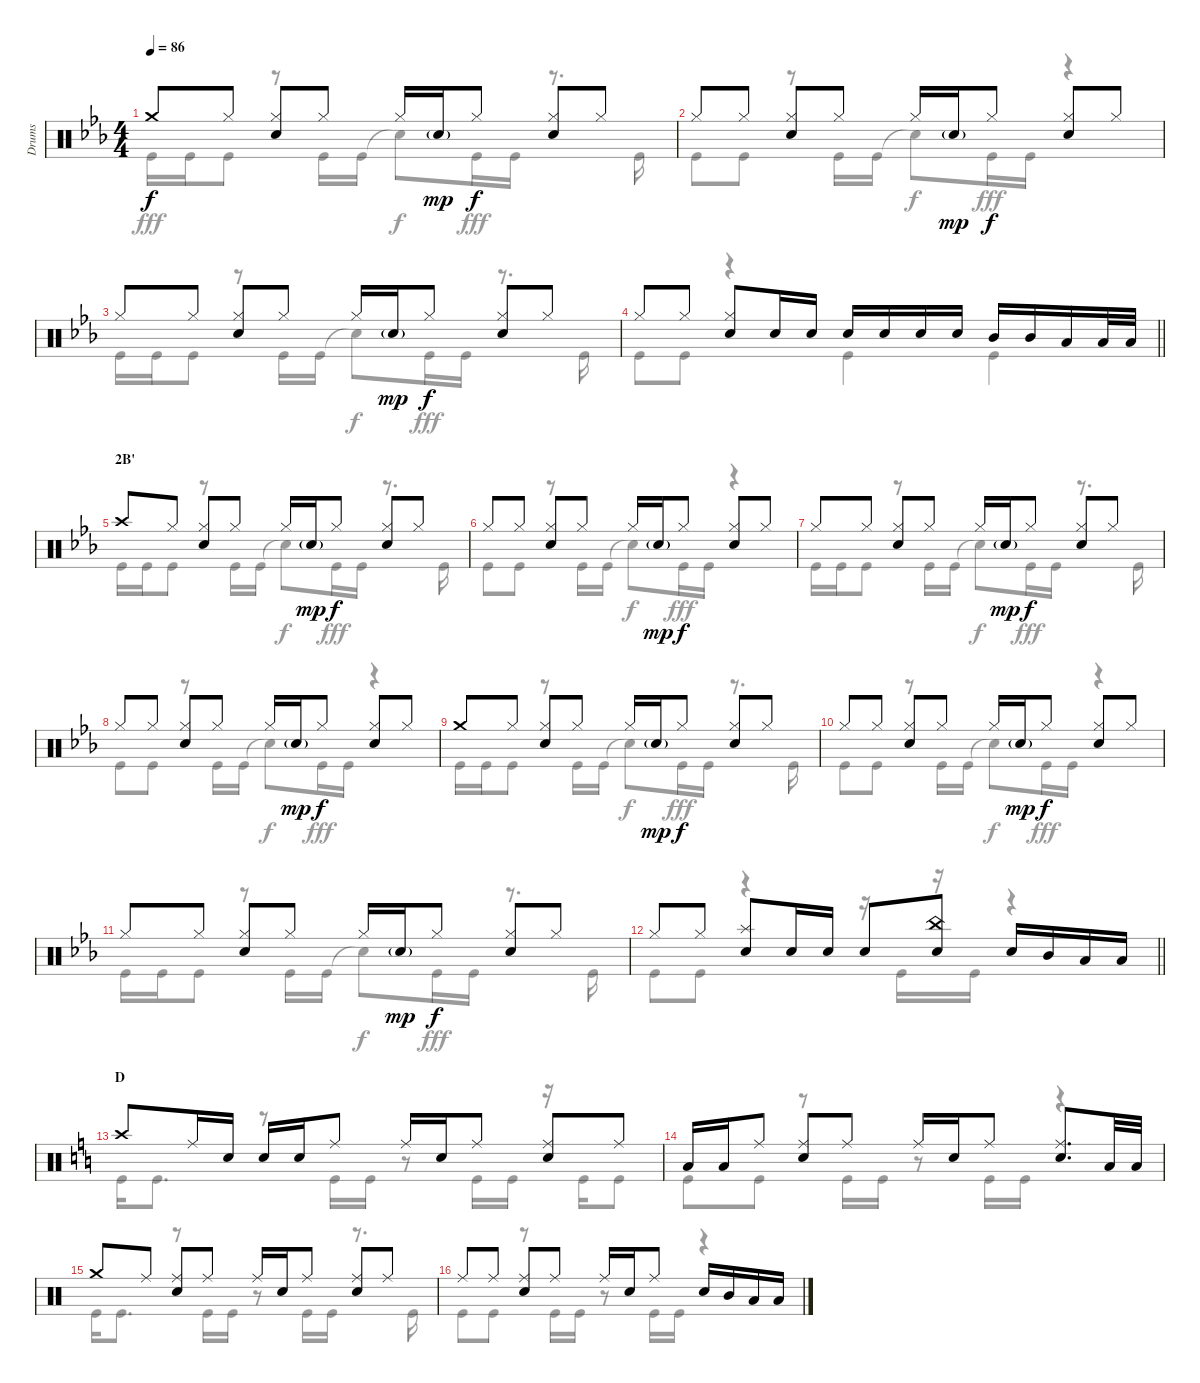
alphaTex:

\track ("Drums" "Drums") {instrument percussion}
\staff {score}
\articulation defaults
\voice
\ts (4 4)
\tempo 86
\clef neutral
\ks eb "Crash medium (hit)".8{dy f} "Hi-Hat (closed)".8
("Hi-Hat (closed)" "Snare (hit) 2").8 "Hi-Hat (closed)".8 "Hi-Hat (closed)".16 "Snare (hit) 2"{g}.16{dy mp} "Hi-Hat (closed)".8{dy f} ("Hi-Hat (closed)" "Snare (hit) 2").8 "Hi-Hat (closed)".8 |
"Hi-Hat (closed)".8 "Hi-Hat (closed)".8 ("Hi-Hat (closed)" "Snare (hit) 2").8 "Hi-Hat (closed)".8 "Hi-Hat (closed)".16 "Snare (hit) 2"{g}.16{dy mp} "Hi-Hat (closed)".8{dy f} ("Hi-Hat (closed)" "Snare (hit) 2").8 "Hi-Hat (closed)".8 |
"Hi-Hat (closed)".8 "Hi-Hat (closed)".8 ("Hi-Hat (closed)" "Snare (hit) 2").8 "Hi-Hat (closed)".8 "Hi-Hat (closed)".16 "Snare (hit) 2"{g}.16{dy mp} "Hi-Hat (closed)".8{dy f} ("Hi-Hat (closed)" "Snare (hit) 2").8 "Hi-Hat (closed)".8 |
\barLineRight lightlight "Hi-Hat (closed)".8 "Hi-Hat (closed)".8
("Hi-Hat (closed)" "Snare (hit) 2").8 "Snare (hit) 2".16 "Snare (hit) 2".16 "Snare (hit) 2".16 "Snare (hit) 2".16 "Snare (hit) 2".16 "Snare (hit) 2".16 "Mid Tom (hit)".16 "Mid Tom (hit)".16 "Low Tom (hit)".16 "Low Tom (hit)".32 "Low Tom (hit)".32 |
\section ("" "2B'")
"Crash high (hit)".8 "Hi-Hat (closed)".8 ("Hi-Hat (closed)" "Snare (hit) 2").8 "Hi-Hat (closed)".8 "Hi-Hat (closed)".16 "Snare (hit) 2"{g}.16{dy mp} "Hi-Hat (closed)".8{dy f} ("Hi-Hat (closed)" "Snare (hit) 2").8 "Hi-Hat (closed)".8 |
"Hi-Hat (closed)".8 "Hi-Hat (closed)".8 ("Hi-Hat (closed)" "Snare (hit) 2").8 "Hi-Hat (closed)".8 "Hi-Hat (closed)".16 "Snare (hit) 2"{g}.16{dy mp} "Hi-Hat (closed)".8{dy f} ("Hi-Hat (closed)" "Snare (hit) 2").8 "Hi-Hat (closed)".8 |
"Hi-Hat (closed)".8 "Hi-Hat (closed)".8 ("Hi-Hat (closed)" "Snare (hit) 2").8 "Hi-Hat (closed)".8 "Hi-Hat (closed)".16 "Snare (hit) 2"{g}.16{dy mp} "Hi-Hat (closed)".8{dy f} ("Hi-Hat (closed)" "Snare (hit) 2").8 "Hi-Hat (closed)".8 |
"Hi-Hat (closed)".8 "Hi-Hat (closed)".8 ("Hi-Hat (closed)" "Snare (hit) 2").8 "Hi-Hat (closed)".8 "Hi-Hat (closed)".16 "Snare (hit) 2"{g}.16{dy mp} "Hi-Hat (closed)".8{dy f} ("Hi-Hat (closed)" "Snare (hit) 2").8 "Hi-Hat (closed)".8 |
"Crash medium (hit)".8 "Hi-Hat (closed)".8 ("Hi-Hat (closed)" "Snare (hit) 2").8 "Hi-Hat (closed)".8 "Hi-Hat (closed)".16 "Snare (hit) 2"{g}.16{dy mp} "Hi-Hat (closed)".8{dy f} ("Hi-Hat (closed)" "Snare (hit) 2").8 "Hi-Hat (closed)".8 |
"Hi-Hat (closed)".8 "Hi-Hat (closed)".8 ("Hi-Hat (closed)" "Snare (hit) 2").8 "Hi-Hat (closed)".8 "Hi-Hat (closed)".16 "Snare (hit) 2"{g}.16{dy mp} "Hi-Hat (closed)".8{dy f} ("Hi-Hat (closed)" "Snare (hit) 2").8 "Hi-Hat (closed)".8 |
"Hi-Hat (closed)".8 "Hi-Hat (closed)".8 ("Hi-Hat (closed)" "Snare (hit) 2").8 "Hi-Hat (closed)".8 "Hi-Hat (closed)".16 "Snare (hit) 2"{g}.16{dy mp} "Hi-Hat (closed)".8{dy f} ("Hi-Hat (closed)" "Snare (hit) 2").8 "Hi-Hat (closed)".8 |
\barLineRight lightlight "Hi-Hat (closed)".8 "Hi-Hat (closed)".8
("Splash (hit)" "Snare (hit) 2").8 "Snare (hit) 2".16 "Snare (hit) 2".16 "Snare (hit) 2".8 ("China (hit)" "Snare (hit) 2").8 "Snare (hit) 2".16 "Mid Tom (hit)".16 "Low Tom (hit)".16 "Low Tom (hit)".16 |
\section ("" "D")
\ks c "Crash high (hit)".8 "Ride (middle)".16 "Snare (hit) 2".16 "Snare (hit) 2".16 "Snare (hit) 2".16 "Ride (middle)".8 "Ride (middle)".16 "Snare (hit) 2".16 "Ride (middle)".8
("Ride (middle)" "Snare (hit) 2").8 "Ride (middle)".8 |
"Low Tom (hit)".16 "Low Tom (hit)".16 "Ride (middle)".8 ("Ride (middle)" "Snare (hit) 2").8 "Ride (middle)".8 "Ride (middle)".16 "Snare (hit) 2".16 "Ride (middle)".8 ("Ride (middle)" "Snare (hit) 2").8{d} "Low Tom (hit)".32 "Low Tom (hit)".32 |
"Crash medium (hit)".8 "Ride (middle)".8 ("Ride (middle)" "Snare (hit) 2").8 "Ride (middle)".8 "Ride (middle)".16 "Snare (hit) 2".16 "Ride (middle)".8 ("Ride (middle)" "Snare (hit) 2").8 "Ride (middle)".8 |
"Ride (middle)".8 "Ride (middle)".8 ("Ride (middle)" "Snare (hit) 2").8 "Ride (middle)".8 "Ride (middle)".16 "Snare (hit) 2".16 "Ride (middle)".8 "Snare (hit) 2".16 "Mid Tom (hit)".16 "Low Tom (hit)".16 "Low Tom (hit)".16
\voice
\clef neutral
\ottava regular
\simile none
\ks eb "Kick (hit)".16{dy fff} "Kick (hit)".16 "Kick (hit)".8
r.8 "Kick (hit)".16 "Kick (hit)".16 "Snare (hit)"{t}.8{dy f} "Kick (hit)".16{dy fff} "Kick (hit)".16 r.8{d} "Kick (hit)".16 |
"Kick (hit)".8 "Kick (hit)".8 r.8 "Kick (hit)".16 "Kick (hit)".16 "Snare (hit)"{t}.8{dy f} "Kick (hit)".16{dy fff} "Kick (hit)".16 r.4 |
"Kick (hit)".16 "Kick (hit)".16 "Kick (hit)".8 r.8 "Kick (hit)".16 "Kick (hit)".16 "Snare (hit)"{t}.8{dy f} "Kick (hit)".16{dy fff} "Kick (hit)".16 r.8{d} "Kick (hit)".16 |
\barLineRight lightlight "Kick (hit)".8 "Kick (hit)".8
r.4 "Kick (hit)".4 "Kick (hit)".4 |
"Kick (hit)".16 "Kick (hit)".16 "Kick (hit)".8 r.8 "Kick (hit)".16 "Kick (hit)".16 "Snare (hit)"{t}.8{dy f} "Kick (hit)".16{dy fff} "Kick (hit)".16 r.8{d} "Kick (hit)".16 |
"Kick (hit)".8 "Kick (hit)".8 r.8 "Kick (hit)".16 "Kick (hit)".16 "Snare (hit)"{t}.8{dy f} "Kick (hit)".16{dy fff} "Kick (hit)".16 r.4 |
"Kick (hit)".16 "Kick (hit)".16 "Kick (hit)".8 r.8 "Kick (hit)".16 "Kick (hit)".16 "Snare (hit)"{t}.8{dy f} "Kick (hit)".16{dy fff} "Kick (hit)".16 r.8{d} "Kick (hit)".16 |
"Kick (hit)".8 "Kick (hit)".8 r.8 "Kick (hit)".16 "Kick (hit)".16 "Snare (hit)"{t}.8{dy f} "Kick (hit)".16{dy fff} "Kick (hit)".16 r.4 |
"Kick (hit)".16 "Kick (hit)".16 "Kick (hit)".8 r.8 "Kick (hit)".16 "Kick (hit)".16 "Snare (hit)"{t}.8{dy f} "Kick (hit)".16{dy fff} "Kick (hit)".16 r.8{d} "Kick (hit)".16 |
"Kick (hit)".8 "Kick (hit)".8 r.8 "Kick (hit)".16 "Kick (hit)".16 "Snare (hit)"{t}.8{dy f} "Kick (hit)".16{dy fff} "Kick (hit)".16 r.4 |
"Kick (hit)".16 "Kick (hit)".16 "Kick (hit)".8 r.8 "Kick (hit)".16 "Kick (hit)".16 "Snare (hit)"{t}.8{dy f} "Kick (hit)".16{dy fff} "Kick (hit)".16 r.8{d} "Kick (hit)".16 |
\barLineRight lightlight "Kick (hit)".8 "Kick (hit)".8
r.4 r.16 "Kick (hit)".16 r.16 "Kick (hit)".16 r.4 |
\ks c "Kick (hit)".16 "Kick (hit)".8{d}
r.8 "Kick (hit)".16 "Kick (hit)".16 r.8 "Kick (hit)".16 "Kick (hit)".16 r.16 "Kick (hit)".16 "Kick (hit)".8 |
"Kick (hit)".8 "Kick (hit)".8 r.8 "Kick (hit)".16 "Kick (hit)".16 r.8 "Kick (hit)".16 "Kick (hit)".16 r.4 |
"Kick (hit)".16 "Kick (hit)".8{d} r.8 "Kick (hit)".16 "Kick (hit)".16 r.8 "Kick (hit)".16 "Kick (hit)".16 r.8{d} "Kick (hit)".16 |
"Kick (hit)".8 "Kick (hit)".8 r.8 "Kick (hit)".16 "Kick (hit)".16 r.8 "Kick (hit)".16 "Kick (hit)".16 r.4
